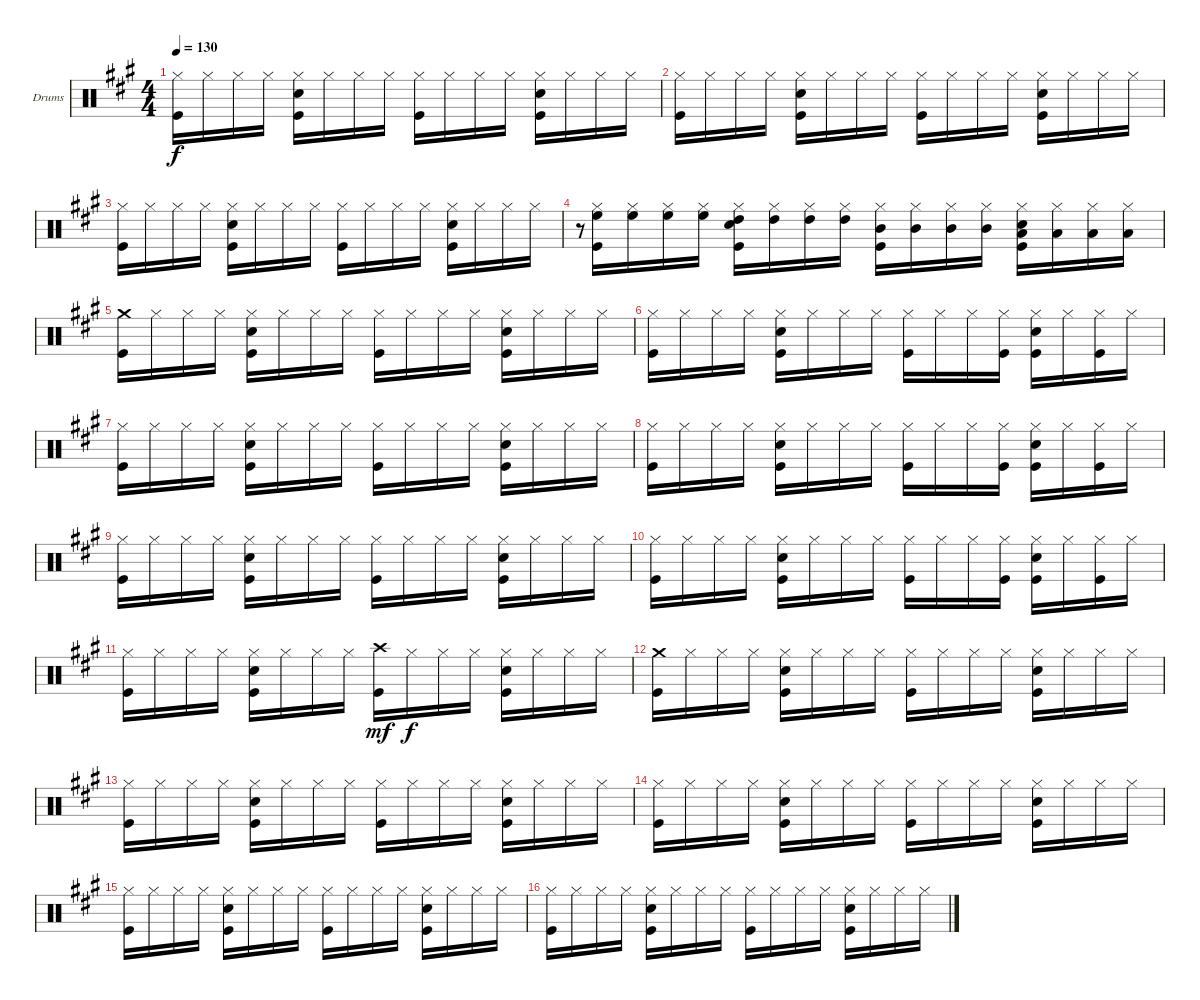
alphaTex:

\bracketExtendMode groupsimilarinstruments
\firstSystemTrackNameOrientation horizontal
\otherSystemsTrackNameOrientation horizontal
\track ("DRUMS" "Drums") {instrument percussion}
\staff {score}
\articulation defaults
\ts (4 4)
\tempo 130
\clef neutral
\ks f#minor
("Hi-Hat (closed)" "Kick (hit)").16{dy f} "Hi-Hat (closed)".16 "Hi-Hat (closed)".16 "Hi-Hat (closed)".16 ("Hi-Hat (closed)" "Snare (hit) 2" "Kick (hit)").16 "Hi-Hat (closed)".16 "Hi-Hat (closed)".16 "Hi-Hat (closed)".16 ("Hi-Hat (closed)" "Kick (hit)").16 "Hi-Hat (closed)".16 "Hi-Hat (closed)".16 "Hi-Hat (closed)".16 ("Hi-Hat (closed)" "Snare (hit) 2" "Kick (hit)").16 "Hi-Hat (closed)".16 "Hi-Hat (closed)".16 "Hi-Hat (closed)".16 |
("Hi-Hat (closed)" "Kick (hit)").16 "Hi-Hat (closed)".16 "Hi-Hat (closed)".16 "Hi-Hat (closed)".16 ("Hi-Hat (closed)" "Snare (hit) 2" "Kick (hit)").16 "Hi-Hat (closed)".16 "Hi-Hat (closed)".16 "Hi-Hat (closed)".16 ("Hi-Hat (closed)" "Kick (hit)").16 "Hi-Hat (closed)".16 "Hi-Hat (closed)".16 "Hi-Hat (closed)".16 ("Hi-Hat (closed)" "Snare (hit) 2" "Kick (hit)").16 "Hi-Hat (closed)".16 "Hi-Hat (closed)".16 "Hi-Hat (closed)".16 |
("Hi-Hat (closed)" "Kick (hit)").16 "Hi-Hat (closed)".16 "Hi-Hat (closed)".16 "Hi-Hat (closed)".16 ("Hi-Hat (closed)" "Snare (hit) 2" "Kick (hit)").16 "Hi-Hat (closed)".16 "Hi-Hat (closed)".16 "Hi-Hat (closed)".16 ("Hi-Hat (closed)" "Kick (hit)").16 "Hi-Hat (closed)".16 "Hi-Hat (closed)".16 "Hi-Hat (closed)".16 ("Hi-Hat (closed)" "Snare (hit) 2" "Kick (hit)").16 "Hi-Hat (closed)".16 "Hi-Hat (closed)".16 "Hi-Hat (closed)".16 |
r.8{gr} ("Hi-Hat (closed)" "Kick (hit)" "High Floor Tom (hit)").16 ("Hi-Hat (closed)" "High Floor Tom (hit)").16 ("Hi-Hat (closed)" "High Floor Tom (hit)").16 ("Hi-Hat (closed)" "High Floor Tom (hit)").16 ("Hi-Hat (closed)" "Snare (hit) 2" "Kick (hit)" "High Tom (hit)").16 ("Hi-Hat (closed)" "High Tom (hit)").16 ("Hi-Hat (closed)" "High Tom (hit)").16 ("Hi-Hat (closed)" "High Tom (hit)").16 ("Hi-Hat (closed)" "Kick (hit)" "Mid Tom (hit)").16 ("Hi-Hat (closed)" "Mid Tom (hit)").16 ("Hi-Hat (closed)" "Mid Tom (hit)").16 ("Hi-Hat (closed)" "Mid Tom (hit)").16 ("Hi-Hat (closed)" "Snare (hit) 2" "Kick (hit)" "Low Tom (hit)").16 ("Hi-Hat (closed)" "Low Tom (hit)").16 ("Hi-Hat (closed)" "Low Tom (hit)").16 ("Hi-Hat (closed)" "Low Tom (hit)").16 |
("Kick (hit)" "Crash medium (hit)").16 "Hi-Hat (closed)".16 "Hi-Hat (closed)".16 "Hi-Hat (closed)".16 ("Hi-Hat (closed)" "Snare (hit) 2" "Kick (hit)").16 "Hi-Hat (closed)".16 "Hi-Hat (closed)".16 "Hi-Hat (closed)".16 ("Hi-Hat (closed)" "Kick (hit)").16 "Hi-Hat (closed)".16 "Hi-Hat (closed)".16 "Hi-Hat (closed)".16 ("Hi-Hat (closed)" "Snare (hit) 2" "Kick (hit)").16 "Hi-Hat (closed)".16 "Hi-Hat (closed)".16 "Hi-Hat (closed)".16 |
("Hi-Hat (closed)" "Kick (hit)").16 "Hi-Hat (closed)".16 "Hi-Hat (closed)".16 "Hi-Hat (closed)".16 ("Hi-Hat (closed)" "Snare (hit) 2" "Kick (hit)").16 "Hi-Hat (closed)".16 "Hi-Hat (closed)".16 "Hi-Hat (closed)".16 ("Hi-Hat (closed)" "Kick (hit)").16 "Hi-Hat (closed)".16 "Hi-Hat (closed)".16 ("Hi-Hat (closed)" "Kick (hit)").16 ("Hi-Hat (closed)" "Snare (hit) 2" "Kick (hit)").16 "Hi-Hat (closed)".16 ("Hi-Hat (closed)" "Kick (hit)").16 "Hi-Hat (closed)".16 |
("Hi-Hat (closed)" "Kick (hit)").16 "Hi-Hat (closed)".16 "Hi-Hat (closed)".16 "Hi-Hat (closed)".16 ("Hi-Hat (closed)" "Snare (hit) 2" "Kick (hit)").16 "Hi-Hat (closed)".16 "Hi-Hat (closed)".16 "Hi-Hat (closed)".16 ("Hi-Hat (closed)" "Kick (hit)").16 "Hi-Hat (closed)".16 "Hi-Hat (closed)".16 "Hi-Hat (closed)".16 ("Hi-Hat (closed)" "Snare (hit) 2" "Kick (hit)").16 "Hi-Hat (closed)".16 "Hi-Hat (closed)".16 "Hi-Hat (closed)".16 |
("Hi-Hat (closed)" "Kick (hit)").16 "Hi-Hat (closed)".16 "Hi-Hat (closed)".16 "Hi-Hat (closed)".16 ("Hi-Hat (closed)" "Snare (hit) 2" "Kick (hit)").16 "Hi-Hat (closed)".16 "Hi-Hat (closed)".16 "Hi-Hat (closed)".16 ("Hi-Hat (closed)" "Kick (hit)").16 "Hi-Hat (closed)".16 "Hi-Hat (closed)".16 ("Hi-Hat (closed)" "Kick (hit)").16 ("Hi-Hat (closed)" "Snare (hit) 2" "Kick (hit)").16 "Hi-Hat (closed)".16 ("Hi-Hat (closed)" "Kick (hit)").16 "Hi-Hat (closed)".16 |
("Hi-Hat (closed)" "Kick (hit)").16 "Hi-Hat (closed)".16 "Hi-Hat (closed)".16 "Hi-Hat (closed)".16 ("Hi-Hat (closed)" "Snare (hit) 2" "Kick (hit)").16 "Hi-Hat (closed)".16 "Hi-Hat (closed)".16 "Hi-Hat (closed)".16 ("Hi-Hat (closed)" "Kick (hit)").16 "Hi-Hat (closed)".16 "Hi-Hat (closed)".16 "Hi-Hat (closed)".16 ("Hi-Hat (closed)" "Snare (hit) 2" "Kick (hit)").16 "Hi-Hat (closed)".16 "Hi-Hat (closed)".16 "Hi-Hat (closed)".16 |
("Hi-Hat (closed)" "Kick (hit)").16 "Hi-Hat (closed)".16 "Hi-Hat (closed)".16 "Hi-Hat (closed)".16 ("Hi-Hat (closed)" "Snare (hit) 2" "Kick (hit)").16 "Hi-Hat (closed)".16 "Hi-Hat (closed)".16 "Hi-Hat (closed)".16 ("Hi-Hat (closed)" "Kick (hit)").16 "Hi-Hat (closed)".16 "Hi-Hat (closed)".16 ("Hi-Hat (closed)" "Kick (hit)").16 ("Hi-Hat (closed)" "Snare (hit) 2" "Kick (hit)").16 "Hi-Hat (closed)".16 ("Hi-Hat (closed)" "Kick (hit)").16 "Hi-Hat (closed)".16 |
("Hi-Hat (closed)" "Kick (hit)").16 "Hi-Hat (closed)".16 "Hi-Hat (closed)".16 "Hi-Hat (closed)".16 ("Hi-Hat (closed)" "Snare (hit) 2" "Kick (hit)").16 "Hi-Hat (closed)".16 "Hi-Hat (closed)".16 "Hi-Hat (closed)".16 ("Crash high (hit)" "Kick (hit)").16{dy mf} "Hi-Hat (closed)".16{dy f} "Hi-Hat (closed)".16 "Hi-Hat (closed)".16 ("Hi-Hat (closed)" "Snare (hit) 2" "Kick (hit)").16 "Hi-Hat (closed)".16 "Hi-Hat (closed)".16 "Hi-Hat (closed)".16 |
("Kick (hit)" "Crash medium (hit)").16 "Hi-Hat (closed)".16 "Hi-Hat (closed)".16 "Hi-Hat (closed)".16 ("Hi-Hat (closed)" "Snare (hit) 2" "Kick (hit)").16 "Hi-Hat (closed)".16 "Hi-Hat (closed)".16 "Hi-Hat (closed)".16 ("Hi-Hat (closed)" "Kick (hit)").16 "Hi-Hat (closed)".16 "Hi-Hat (closed)".16 "Hi-Hat (closed)".16 ("Hi-Hat (closed)" "Snare (hit) 2" "Kick (hit)").16 "Hi-Hat (closed)".16 "Hi-Hat (closed)".16 "Hi-Hat (closed)".16 |
("Hi-Hat (closed)" "Kick (hit)").16 "Hi-Hat (closed)".16 "Hi-Hat (closed)".16 "Hi-Hat (closed)".16 ("Hi-Hat (closed)" "Snare (hit) 2" "Kick (hit)").16 "Hi-Hat (closed)".16 "Hi-Hat (closed)".16 "Hi-Hat (closed)".16 ("Hi-Hat (closed)" "Kick (hit)").16 "Hi-Hat (closed)".16 "Hi-Hat (closed)".16 "Hi-Hat (closed)".16 ("Hi-Hat (closed)" "Snare (hit) 2" "Kick (hit)").16 "Hi-Hat (closed)".16 "Hi-Hat (closed)".16 "Hi-Hat (closed)".16 |
("Hi-Hat (closed)" "Kick (hit)").16 "Hi-Hat (closed)".16 "Hi-Hat (closed)".16 "Hi-Hat (closed)".16 ("Hi-Hat (closed)" "Snare (hit) 2" "Kick (hit)").16 "Hi-Hat (closed)".16 "Hi-Hat (closed)".16 "Hi-Hat (closed)".16 ("Hi-Hat (closed)" "Kick (hit)").16 "Hi-Hat (closed)".16 "Hi-Hat (closed)".16 "Hi-Hat (closed)".16 ("Hi-Hat (closed)" "Snare (hit) 2" "Kick (hit)").16 "Hi-Hat (closed)".16 "Hi-Hat (closed)".16 "Hi-Hat (closed)".16 |
("Hi-Hat (closed)" "Kick (hit)").16 "Hi-Hat (closed)".16 "Hi-Hat (closed)".16 "Hi-Hat (closed)".16 ("Hi-Hat (closed)" "Snare (hit) 2" "Kick (hit)").16 "Hi-Hat (closed)".16 "Hi-Hat (closed)".16 "Hi-Hat (closed)".16 ("Hi-Hat (closed)" "Kick (hit)").16 "Hi-Hat (closed)".16 "Hi-Hat (closed)".16 "Hi-Hat (closed)".16 ("Hi-Hat (closed)" "Snare (hit) 2" "Kick (hit)").16 "Hi-Hat (closed)".16 "Hi-Hat (closed)".16 "Hi-Hat (closed)".16 |
("Hi-Hat (closed)" "Kick (hit)").16 "Hi-Hat (closed)".16 "Hi-Hat (closed)".16 "Hi-Hat (closed)".16 ("Hi-Hat (closed)" "Snare (hit) 2" "Kick (hit)").16 "Hi-Hat (closed)".16 "Hi-Hat (closed)".16 "Hi-Hat (closed)".16 ("Hi-Hat (closed)" "Kick (hit)").16 "Hi-Hat (closed)".16 "Hi-Hat (closed)".16 "Hi-Hat (closed)".16 ("Hi-Hat (closed)" "Snare (hit) 2" "Kick (hit)").16 "Hi-Hat (closed)".16 "Hi-Hat (closed)".16 "Hi-Hat (closed)".16
